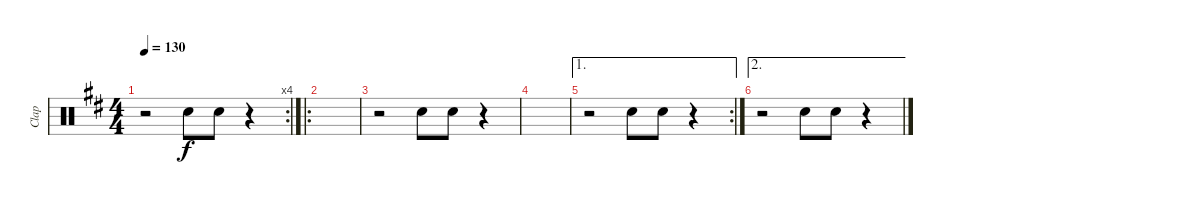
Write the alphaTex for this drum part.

\track ("Clap" "Clap") {instrument percussion}
\staff {score}
\articulation defaults
\rc 4
\ts (4 4)
\tempo 130
\clef neutral
\ks d
r.2{dy f} "Hand Clap (hit)".8 "Hand Clap (hit)".8 r.4 |
\ro
|
r.2 "Hand Clap (hit)".8 "Hand Clap (hit)".8 r.4 |
|
\ae 1
\rc 2
r.2 "Hand Clap (hit)".8 "Hand Clap (hit)".8 r.4 |
\ae 2
r.2 "Hand Clap (hit)".8 "Hand Clap (hit)".8 r.4
